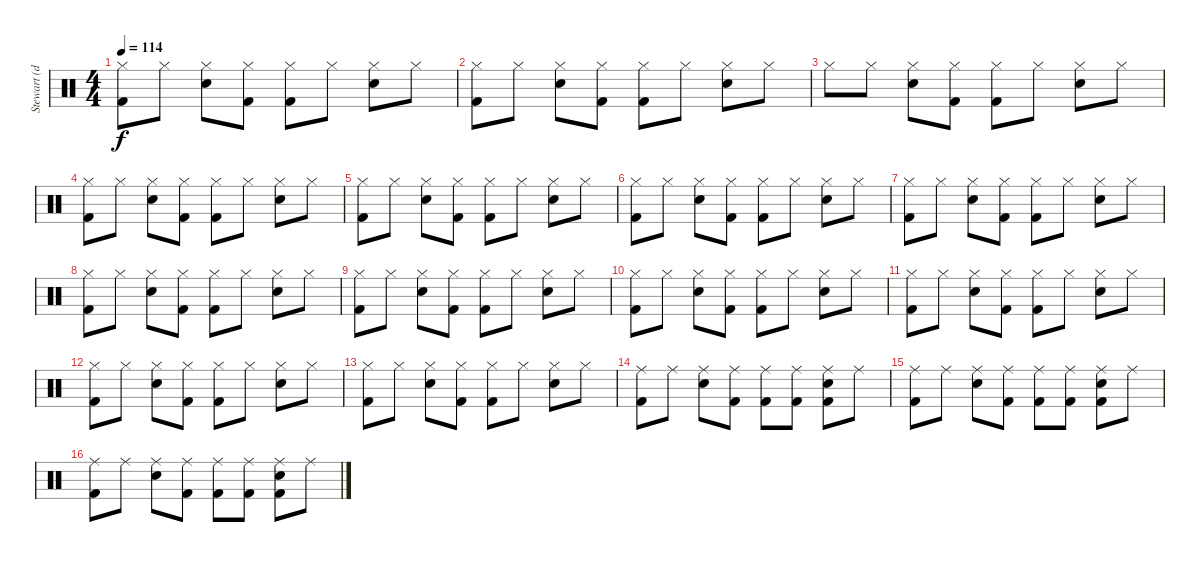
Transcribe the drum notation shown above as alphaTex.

\track ("Stewart (drums)" "Stewart (d") {instrument percussion}
\staff {score}
\articulation defaults
\ts (4 4)
\tempo 114
\clef neutral
\ks c
("Hi-Hat (closed)" "Kick (hit) 2").8{dy f} "Hi-Hat (closed)".8 ("Hi-Hat (closed)" "Snare (hit) 2").8 ("Hi-Hat (closed)" "Kick (hit) 2").8 ("Hi-Hat (closed)" "Kick (hit) 2").8 "Hi-Hat (closed)".8 ("Hi-Hat (closed)" "Snare (hit) 2").8 "Hi-Hat (closed)".8 |
("Hi-Hat (closed)" "Kick (hit) 2").8 "Hi-Hat (closed)".8 ("Hi-Hat (closed)" "Snare (hit) 2").8 ("Hi-Hat (closed)" "Kick (hit) 2").8 ("Hi-Hat (closed)" "Kick (hit) 2").8 "Hi-Hat (closed)".8 ("Hi-Hat (closed)" "Snare (hit) 2").8 "Hi-Hat (closed)".8 |
"Hi-Hat (closed)".8 "Hi-Hat (closed)".8 ("Hi-Hat (closed)" "Snare (hit) 2").8 ("Hi-Hat (closed)" "Kick (hit) 2").8 ("Hi-Hat (closed)" "Kick (hit) 2").8 "Hi-Hat (closed)".8 ("Hi-Hat (closed)" "Snare (hit) 2").8 "Hi-Hat (closed)".8 |
("Hi-Hat (closed)" "Kick (hit) 2").8 "Hi-Hat (closed)".8 ("Hi-Hat (closed)" "Snare (hit) 2").8 ("Hi-Hat (closed)" "Kick (hit) 2").8 ("Hi-Hat (closed)" "Kick (hit) 2").8 "Hi-Hat (closed)".8 ("Hi-Hat (closed)" "Snare (hit) 2").8 "Hi-Hat (closed)".8 |
("Hi-Hat (closed)" "Kick (hit) 2").8 "Hi-Hat (closed)".8 ("Hi-Hat (closed)" "Snare (hit) 2").8 ("Hi-Hat (closed)" "Kick (hit) 2").8 ("Hi-Hat (closed)" "Kick (hit) 2").8 "Hi-Hat (closed)".8 ("Hi-Hat (closed)" "Snare (hit) 2").8 "Hi-Hat (closed)".8 |
("Hi-Hat (closed)" "Kick (hit) 2").8 "Hi-Hat (closed)".8 ("Hi-Hat (closed)" "Snare (hit) 2").8 ("Hi-Hat (closed)" "Kick (hit) 2").8 ("Hi-Hat (closed)" "Kick (hit) 2").8 "Hi-Hat (closed)".8 ("Hi-Hat (closed)" "Snare (hit) 2").8 "Hi-Hat (closed)".8 |
("Hi-Hat (closed)" "Kick (hit) 2").8 "Hi-Hat (closed)".8 ("Hi-Hat (closed)" "Snare (hit) 2").8 ("Hi-Hat (closed)" "Kick (hit) 2").8 ("Hi-Hat (closed)" "Kick (hit) 2").8 "Hi-Hat (closed)".8 ("Hi-Hat (closed)" "Snare (hit) 2").8 "Hi-Hat (closed)".8 |
("Hi-Hat (closed)" "Kick (hit) 2").8 "Hi-Hat (closed)".8 ("Hi-Hat (closed)" "Snare (hit) 2").8 ("Hi-Hat (closed)" "Kick (hit) 2").8 ("Hi-Hat (closed)" "Kick (hit) 2").8 "Hi-Hat (closed)".8 ("Hi-Hat (closed)" "Snare (hit) 2").8 "Hi-Hat (closed)".8 |
("Hi-Hat (closed)" "Kick (hit) 2").8 "Hi-Hat (closed)".8 ("Hi-Hat (closed)" "Snare (hit) 2").8 ("Hi-Hat (closed)" "Kick (hit) 2").8 ("Hi-Hat (closed)" "Kick (hit) 2").8 "Hi-Hat (closed)".8 ("Hi-Hat (closed)" "Snare (hit) 2").8 "Hi-Hat (closed)".8 |
("Hi-Hat (closed)" "Kick (hit) 2").8 "Hi-Hat (closed)".8 ("Hi-Hat (closed)" "Snare (hit) 2").8 ("Hi-Hat (closed)" "Kick (hit) 2").8 ("Hi-Hat (closed)" "Kick (hit) 2").8 "Hi-Hat (closed)".8 ("Hi-Hat (closed)" "Snare (hit) 2").8 "Hi-Hat (closed)".8 |
("Hi-Hat (closed)" "Kick (hit) 2").8 "Hi-Hat (closed)".8 ("Hi-Hat (closed)" "Snare (hit) 2").8 ("Hi-Hat (closed)" "Kick (hit) 2").8 ("Hi-Hat (closed)" "Kick (hit) 2").8 "Hi-Hat (closed)".8 ("Hi-Hat (closed)" "Snare (hit) 2").8 "Hi-Hat (closed)".8 |
("Hi-Hat (closed)" "Kick (hit) 2").8 "Hi-Hat (closed)".8 ("Hi-Hat (closed)" "Snare (hit) 2").8 ("Hi-Hat (closed)" "Kick (hit) 2").8 ("Hi-Hat (closed)" "Kick (hit) 2").8 "Hi-Hat (closed)".8 ("Hi-Hat (closed)" "Snare (hit) 2").8 "Hi-Hat (closed)".8 |
("Hi-Hat (closed)" "Kick (hit) 2").8 "Hi-Hat (closed)".8 ("Hi-Hat (closed)" "Snare (hit) 2").8 ("Hi-Hat (closed)" "Kick (hit) 2").8 ("Hi-Hat (closed)" "Kick (hit) 2").8 "Hi-Hat (closed)".8 ("Hi-Hat (closed)" "Snare (hit) 2").8 "Hi-Hat (closed)".8 |
("Ride (middle)" "Kick (hit) 2").8 "Ride (middle)".8 ("Ride (middle)" "Snare (hit) 2").8 ("Ride (middle)" "Kick (hit) 2").8 ("Ride (middle)" "Kick (hit) 2").8 ("Ride (middle)" "Kick (hit) 2").8 ("Ride (middle)" "Kick (hit) 2" "Snare (hit) 2").8 "Ride (middle)".8 |
("Ride (middle)" "Kick (hit) 2").8 "Ride (middle)".8 ("Ride (middle)" "Snare (hit) 2").8 ("Ride (middle)" "Kick (hit) 2").8 ("Ride (middle)" "Kick (hit) 2").8 ("Ride (middle)" "Kick (hit) 2").8 ("Ride (middle)" "Kick (hit) 2" "Snare (hit) 2").8 "Ride (middle)".8 |
("Ride (middle)" "Kick (hit) 2").8 "Ride (middle)".8 ("Ride (middle)" "Snare (hit) 2").8 ("Ride (middle)" "Kick (hit) 2").8 ("Ride (middle)" "Kick (hit) 2").8 ("Ride (middle)" "Kick (hit) 2").8 ("Ride (middle)" "Kick (hit) 2" "Snare (hit) 2").8 "Ride (middle)".8
